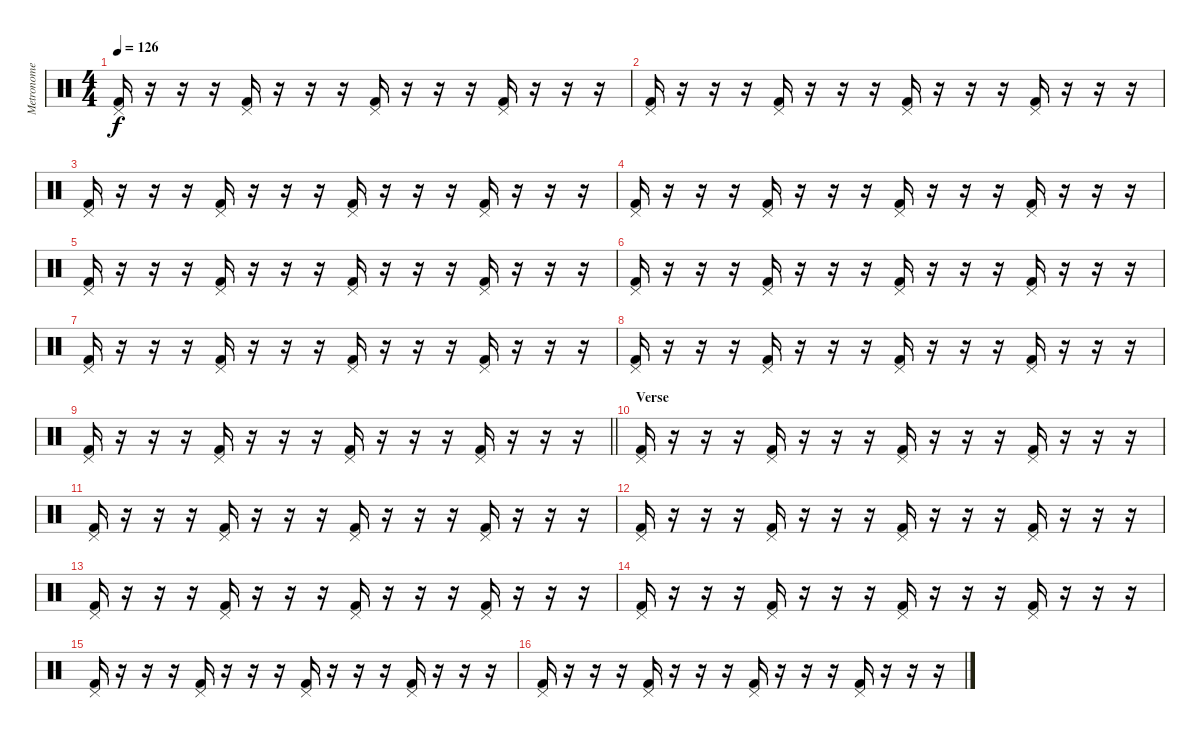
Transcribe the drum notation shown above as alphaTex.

\track ("Metronome" "Metronome") {mute instrument percussion}
\staff {score}
\articulation defaults
\ts (4 4)
\tempo 126
\clef neutral
\ks c
("Pedal Hi-Hat (hit)" "Kick (hit) 2").16{dy f} r.16 r.16 r.16 ("Pedal Hi-Hat (hit)" "Kick (hit) 2").16 r.16 r.16 r.16 ("Pedal Hi-Hat (hit)" "Kick (hit) 2").16 r.16 r.16 r.16 ("Pedal Hi-Hat (hit)" "Kick (hit) 2").16 r.16 r.16 r.16 |
("Pedal Hi-Hat (hit)" "Kick (hit) 2").16 r.16 r.16 r.16 ("Pedal Hi-Hat (hit)" "Kick (hit) 2").16 r.16 r.16 r.16 ("Pedal Hi-Hat (hit)" "Kick (hit) 2").16 r.16 r.16 r.16 ("Pedal Hi-Hat (hit)" "Kick (hit) 2").16 r.16 r.16 r.16 |
("Pedal Hi-Hat (hit)" "Kick (hit) 2").16 r.16 r.16 r.16 ("Pedal Hi-Hat (hit)" "Kick (hit) 2").16 r.16 r.16 r.16 ("Pedal Hi-Hat (hit)" "Kick (hit) 2").16 r.16 r.16 r.16 ("Pedal Hi-Hat (hit)" "Kick (hit) 2").16 r.16 r.16 r.16 |
("Pedal Hi-Hat (hit)" "Kick (hit) 2").16 r.16 r.16 r.16 ("Pedal Hi-Hat (hit)" "Kick (hit) 2").16 r.16 r.16 r.16 ("Pedal Hi-Hat (hit)" "Kick (hit) 2").16 r.16 r.16 r.16 ("Pedal Hi-Hat (hit)" "Kick (hit) 2").16 r.16 r.16 r.16 |
("Pedal Hi-Hat (hit)" "Kick (hit) 2").16 r.16 r.16 r.16 ("Pedal Hi-Hat (hit)" "Kick (hit) 2").16 r.16 r.16 r.16 ("Pedal Hi-Hat (hit)" "Kick (hit) 2").16 r.16 r.16 r.16 ("Pedal Hi-Hat (hit)" "Kick (hit) 2").16 r.16 r.16 r.16 |
("Pedal Hi-Hat (hit)" "Kick (hit) 2").16 r.16 r.16 r.16 ("Pedal Hi-Hat (hit)" "Kick (hit) 2").16 r.16 r.16 r.16 ("Pedal Hi-Hat (hit)" "Kick (hit) 2").16 r.16 r.16 r.16 ("Pedal Hi-Hat (hit)" "Kick (hit) 2").16 r.16 r.16 r.16 |
("Pedal Hi-Hat (hit)" "Kick (hit) 2").16 r.16 r.16 r.16 ("Pedal Hi-Hat (hit)" "Kick (hit) 2").16 r.16 r.16 r.16 ("Pedal Hi-Hat (hit)" "Kick (hit) 2").16 r.16 r.16 r.16 ("Pedal Hi-Hat (hit)" "Kick (hit) 2").16 r.16 r.16 r.16 |
("Pedal Hi-Hat (hit)" "Kick (hit) 2").16 r.16 r.16 r.16 ("Pedal Hi-Hat (hit)" "Kick (hit) 2").16 r.16 r.16 r.16 ("Pedal Hi-Hat (hit)" "Kick (hit) 2").16 r.16 r.16 r.16 ("Pedal Hi-Hat (hit)" "Kick (hit) 2").16 r.16 r.16 r.16 |
\barLineRight lightlight
("Pedal Hi-Hat (hit)" "Kick (hit) 2").16 r.16 r.16 r.16 ("Pedal Hi-Hat (hit)" "Kick (hit) 2").16 r.16 r.16 r.16 ("Pedal Hi-Hat (hit)" "Kick (hit) 2").16 r.16 r.16 r.16 ("Pedal Hi-Hat (hit)" "Kick (hit) 2").16 r.16 r.16 r.16 |
\section ("" "Verse")
("Pedal Hi-Hat (hit)" "Kick (hit) 2").16 r.16 r.16 r.16 ("Pedal Hi-Hat (hit)" "Kick (hit) 2").16 r.16 r.16 r.16 ("Pedal Hi-Hat (hit)" "Kick (hit) 2").16 r.16 r.16 r.16 ("Pedal Hi-Hat (hit)" "Kick (hit) 2").16 r.16 r.16 r.16 |
("Pedal Hi-Hat (hit)" "Kick (hit) 2").16 r.16 r.16 r.16 ("Pedal Hi-Hat (hit)" "Kick (hit) 2").16 r.16 r.16 r.16 ("Pedal Hi-Hat (hit)" "Kick (hit) 2").16 r.16 r.16 r.16 ("Pedal Hi-Hat (hit)" "Kick (hit) 2").16 r.16 r.16 r.16 |
("Pedal Hi-Hat (hit)" "Kick (hit) 2").16 r.16 r.16 r.16 ("Pedal Hi-Hat (hit)" "Kick (hit) 2").16 r.16 r.16 r.16 ("Pedal Hi-Hat (hit)" "Kick (hit) 2").16 r.16 r.16 r.16 ("Pedal Hi-Hat (hit)" "Kick (hit) 2").16 r.16 r.16 r.16 |
("Pedal Hi-Hat (hit)" "Kick (hit) 2").16 r.16 r.16 r.16 ("Pedal Hi-Hat (hit)" "Kick (hit) 2").16 r.16 r.16 r.16 ("Pedal Hi-Hat (hit)" "Kick (hit) 2").16 r.16 r.16 r.16 ("Pedal Hi-Hat (hit)" "Kick (hit) 2").16 r.16 r.16 r.16 |
("Pedal Hi-Hat (hit)" "Kick (hit) 2").16 r.16 r.16 r.16 ("Pedal Hi-Hat (hit)" "Kick (hit) 2").16 r.16 r.16 r.16 ("Pedal Hi-Hat (hit)" "Kick (hit) 2").16 r.16 r.16 r.16 ("Pedal Hi-Hat (hit)" "Kick (hit) 2").16 r.16 r.16 r.16 |
("Pedal Hi-Hat (hit)" "Kick (hit) 2").16 r.16 r.16 r.16 ("Pedal Hi-Hat (hit)" "Kick (hit) 2").16 r.16 r.16 r.16 ("Pedal Hi-Hat (hit)" "Kick (hit) 2").16 r.16 r.16 r.16 ("Pedal Hi-Hat (hit)" "Kick (hit) 2").16 r.16 r.16 r.16 |
("Pedal Hi-Hat (hit)" "Kick (hit) 2").16 r.16 r.16 r.16 ("Pedal Hi-Hat (hit)" "Kick (hit) 2").16 r.16 r.16 r.16 ("Pedal Hi-Hat (hit)" "Kick (hit) 2").16 r.16 r.16 r.16 ("Pedal Hi-Hat (hit)" "Kick (hit) 2").16 r.16 r.16 r.16
